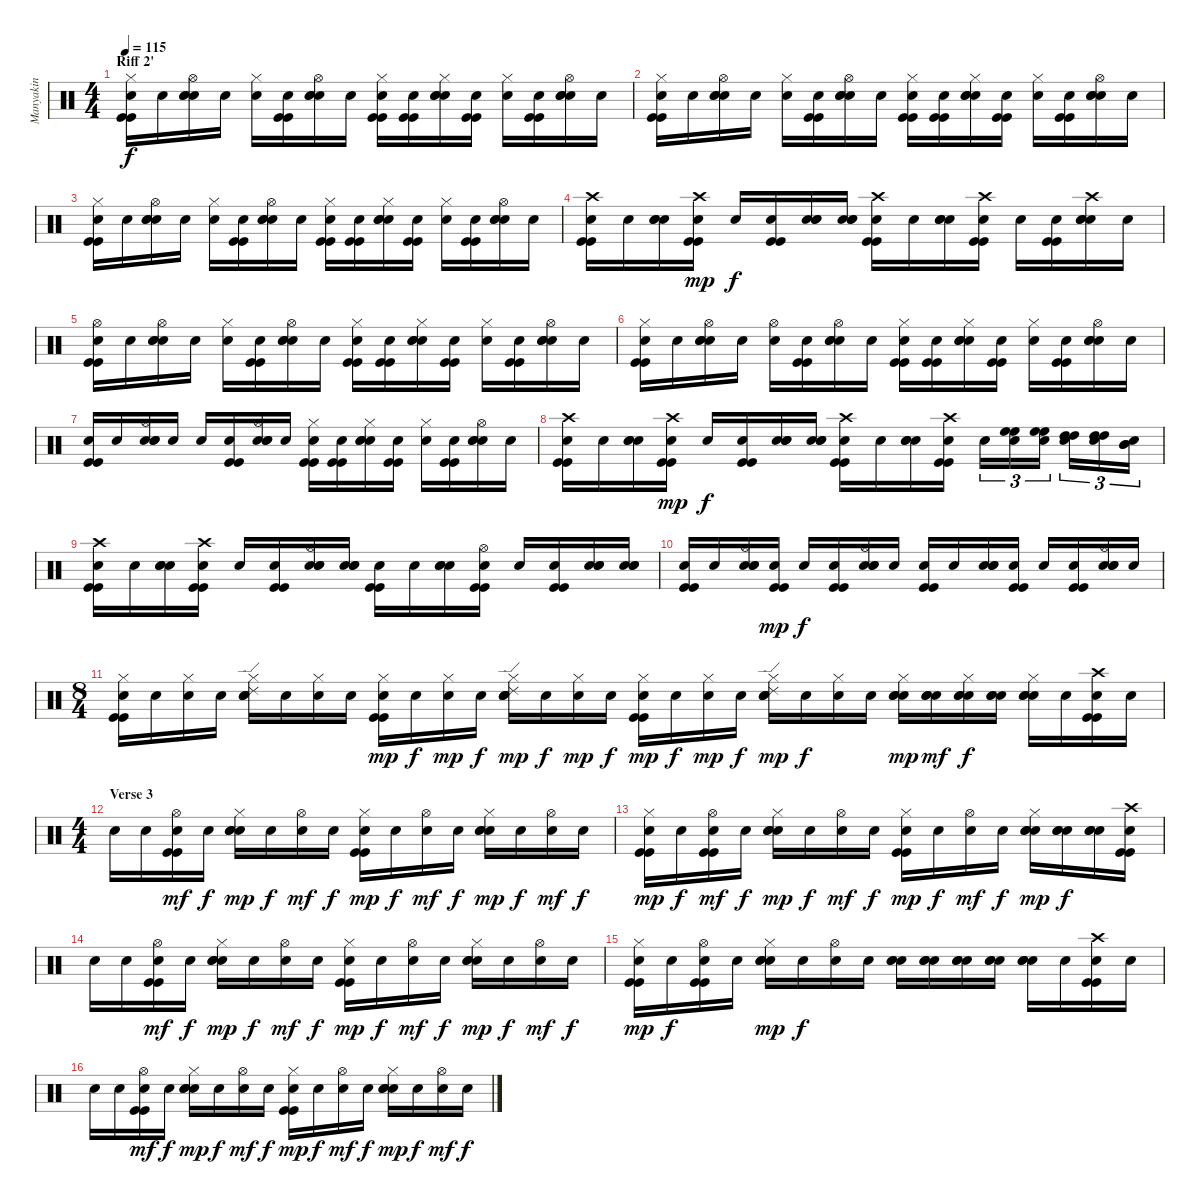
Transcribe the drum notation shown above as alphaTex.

\track ("Manyakin" "Manyakin") {instrument percussion}
\staff {score}
\articulation defaults
\ts (4 4)
\section ("" "Riff 2'")
\tempo 115
\clef neutral
\ks c
("Hi-Hat (closed)" "Kick (hit)" "Kick (hit)" "Snare (hit)"{x}).16{dy f} "Snare (hit)"{x}.16 ("Hi-Hat (open)" "Electric Snare (hit)" "Electric Snare (hit)" "Snare (hit)"{x}).16 "Snare (hit)"{x}.16 ("Hi-Hat (closed)" "Snare (hit)"{x}).16 ("Kick (hit)" "Kick (hit)" "Snare (hit)"{x}).16 ("Hi-Hat (open)" "Electric Snare (hit)" "Electric Snare (hit)" "Snare (hit)"{x}).16 "Snare (hit)"{x}.16 ("Hi-Hat (closed)" "Kick (hit)" "Kick (hit)" "Snare (hit)"{x}).16 ("Kick (hit)" "Kick (hit)" "Snare (hit)"{x}).16 ("Hi-Hat (closed)" "Electric Snare (hit)" "Electric Snare (hit)" "Snare (hit)"{x}).16 ("Kick (hit)" "Kick (hit)" "Snare (hit)"{x}).16 ("Hi-Hat (closed)" "Snare (hit)"{x}).16 ("Kick (hit)" "Kick (hit)" "Snare (hit)"{x}).16 ("Hi-Hat (open)" "Electric Snare (hit)" "Electric Snare (hit)" "Snare (hit)"{x}).16 "Snare (hit)"{x}.16 |
("Hi-Hat (closed)" "Kick (hit)" "Kick (hit)" "Snare (hit)"{x}).16 "Snare (hit)"{x}.16 ("Hi-Hat (open)" "Electric Snare (hit)" "Electric Snare (hit)" "Snare (hit)"{x}).16 "Snare (hit)"{x}.16 ("Hi-Hat (closed)" "Snare (hit)"{x}).16 ("Kick (hit)" "Kick (hit)" "Snare (hit)"{x}).16 ("Hi-Hat (open)" "Electric Snare (hit)" "Electric Snare (hit)" "Snare (hit)"{x}).16 "Snare (hit)"{x}.16 ("Hi-Hat (closed)" "Kick (hit)" "Kick (hit)" "Snare (hit)"{x}).16 ("Kick (hit)" "Kick (hit)" "Snare (hit)"{x}).16 ("Hi-Hat (closed)" "Electric Snare (hit)" "Electric Snare (hit)" "Snare (hit)"{x}).16 ("Kick (hit)" "Kick (hit)" "Snare (hit)"{x}).16 ("Hi-Hat (closed)" "Snare (hit)"{x}).16 ("Kick (hit)" "Kick (hit)" "Snare (hit)"{x}).16 ("Hi-Hat (open)" "Electric Snare (hit)" "Electric Snare (hit)" "Snare (hit)"{x}).16 "Snare (hit)"{x}.16 |
("Hi-Hat (closed)" "Kick (hit)" "Kick (hit)" "Snare (hit)"{x}).16 "Snare (hit)"{x}.16 ("Hi-Hat (open)" "Electric Snare (hit)" "Electric Snare (hit)" "Snare (hit)"{x}).16 "Snare (hit)"{x}.16 ("Hi-Hat (closed)" "Snare (hit)"{x}).16 ("Kick (hit)" "Kick (hit)" "Snare (hit)"{x}).16 ("Hi-Hat (open)" "Electric Snare (hit)" "Electric Snare (hit)" "Snare (hit)"{x}).16 "Snare (hit)"{x}.16 ("Hi-Hat (closed)" "Kick (hit)" "Kick (hit)" "Snare (hit)"{x}).16 ("Kick (hit)" "Kick (hit)" "Snare (hit)"{x}).16 ("Hi-Hat (closed)" "Electric Snare (hit)" "Electric Snare (hit)" "Snare (hit)"{x}).16 ("Kick (hit)" "Kick (hit)" "Snare (hit)"{x}).16 ("Hi-Hat (closed)" "Snare (hit)"{x}).16 ("Kick (hit)" "Kick (hit)" "Snare (hit)"{x}).16 ("Hi-Hat (open)" "Electric Snare (hit)" "Electric Snare (hit)" "Snare (hit)"{x}).16 "Snare (hit)"{x}.16 |
("Crash high (hit)" "Kick (hit)" "Kick (hit)" "Snare (hit)"{x}).16 "Snare (hit)"{x}.16 ("Electric Snare (hit)" "Electric Snare (hit)" "Snare (hit)"{x}).16 ("Crash high (hit)" "Kick (hit)" "Kick (hit)" "Snare (hit)"{x}).16{dy mp} "Snare (hit)"{x}.16{dy f} ("Kick (hit)" "Kick (hit)" "Snare (hit)"{x}).16 ("Electric Snare (hit)" "Electric Snare (hit)" "Snare (hit)"{x}).16 ("Electric Snare (hit)" "Electric Snare (hit)" "Snare (hit)"{x}).16 ("Crash high (hit)" "Kick (hit)" "Kick (hit)" "Snare (hit)"{x}).16 "Snare (hit)"{x}.16 ("Electric Snare (hit)" "Electric Snare (hit)" "Snare (hit)"{x}).16 ("Crash high (hit)" "Kick (hit)" "Kick (hit)" "Snare (hit)"{x}).16 "Snare (hit)"{x}.16 ("Kick (hit)" "Kick (hit)" "Snare (hit)"{x}).16 ("Crash high (hit)" "Electric Snare (hit)" "Electric Snare (hit)" "Snare (hit)"{x}).16 "Snare (hit)"{x}.16 |
("Hi-Hat (open)" "Kick (hit)" "Kick (hit)" "Snare (hit)"{x}).16 "Snare (hit)"{x}.16 ("Hi-Hat (open)" "Electric Snare (hit)" "Electric Snare (hit)" "Snare (hit)"{x}).16 "Snare (hit)"{x}.16 ("Hi-Hat (closed)" "Snare (hit)"{x}).16 ("Kick (hit)" "Kick (hit)" "Snare (hit)"{x}).16 ("Hi-Hat (open)" "Electric Snare (hit)" "Electric Snare (hit)" "Snare (hit)"{x}).16 "Snare (hit)"{x}.16 ("Hi-Hat (closed)" "Kick (hit)" "Kick (hit)" "Snare (hit)"{x}).16 ("Kick (hit)" "Kick (hit)" "Snare (hit)"{x}).16 ("Hi-Hat (closed)" "Electric Snare (hit)" "Electric Snare (hit)" "Snare (hit)"{x}).16 ("Kick (hit)" "Kick (hit)" "Snare (hit)"{x}).16 ("Hi-Hat (closed)" "Snare (hit)"{x}).16 ("Kick (hit)" "Kick (hit)" "Snare (hit)"{x}).16 ("Hi-Hat (open)" "Electric Snare (hit)" "Electric Snare (hit)" "Snare (hit)"{x}).16 "Snare (hit)"{x}.16 |
("Hi-Hat (closed)" "Kick (hit)" "Kick (hit)" "Snare (hit)"{x}).16 "Snare (hit)"{x}.16 ("Hi-Hat (open)" "Electric Snare (hit)" "Electric Snare (hit)" "Snare (hit)"{x}).16 "Snare (hit)"{x}.16 ("Hi-Hat (open)" "Snare (hit)"{x}).16 ("Kick (hit)" "Kick (hit)" "Snare (hit)"{x}).16 ("Hi-Hat (open)" "Electric Snare (hit)" "Electric Snare (hit)" "Snare (hit)"{x}).16 "Snare (hit)"{x}.16 ("Hi-Hat (closed)" "Kick (hit)" "Kick (hit)" "Snare (hit)"{x}).16 ("Kick (hit)" "Kick (hit)" "Snare (hit)"{x}).16 ("Hi-Hat (closed)" "Electric Snare (hit)" "Electric Snare (hit)" "Snare (hit)"{x}).16 ("Kick (hit)" "Kick (hit)" "Snare (hit)"{x}).16 ("Hi-Hat (closed)" "Snare (hit)"{x}).16 ("Kick (hit)" "Kick (hit)" "Snare (hit)"{x}).16 ("Hi-Hat (open)" "Electric Snare (hit)" "Electric Snare (hit)" "Snare (hit)"{x}).16 "Snare (hit)"{x}.16 |
("Kick (hit)" "Kick (hit)" "Snare (hit)"{x}).16 "Snare (hit)"{x}.16 ("Hi-Hat (open)" "Electric Snare (hit)" "Electric Snare (hit)" "Snare (hit)"{x}).16 "Snare (hit)"{x}.16 "Snare (hit)"{x}.16 ("Kick (hit)" "Kick (hit)" "Snare (hit)"{x}).16 ("Hi-Hat (open)" "Electric Snare (hit)" "Electric Snare (hit)" "Snare (hit)"{x}).16 "Snare (hit)"{x}.16 ("Hi-Hat (closed)" "Kick (hit)" "Kick (hit)" "Snare (hit)"{x}).16 ("Kick (hit)" "Kick (hit)" "Snare (hit)"{x}).16 ("Hi-Hat (closed)" "Electric Snare (hit)" "Electric Snare (hit)" "Snare (hit)"{x}).16 ("Kick (hit)" "Kick (hit)" "Snare (hit)"{x}).16 ("Hi-Hat (closed)" "Snare (hit)"{x}).16 ("Kick (hit)" "Kick (hit)" "Snare (hit)"{x}).16 ("Hi-Hat (open)" "Electric Snare (hit)" "Electric Snare (hit)" "Snare (hit)"{x}).16 "Snare (hit)"{x}.16 |
("Crash high (hit)" "Kick (hit)" "Kick (hit)" "Snare (hit)"{x}).16 "Snare (hit)"{x}.16 ("Electric Snare (hit)" "Electric Snare (hit)" "Snare (hit)"{x}).16 ("Crash high (hit)" "Kick (hit)" "Kick (hit)" "Snare (hit)"{x}).16{dy mp} "Snare (hit)"{x}.16{dy f} ("Kick (hit)" "Kick (hit)" "Snare (hit)"{x}).16 ("Electric Snare (hit)" "Electric Snare (hit)" "Snare (hit)"{x}).16 ("Electric Snare (hit)" "Electric Snare (hit)" "Snare (hit)"{x}).16 ("Crash high (hit)" "Kick (hit)" "Kick (hit)" "Snare (hit)"{x}).16 "Snare (hit)"{x}.16 ("Electric Snare (hit)" "Electric Snare (hit)" "Snare (hit)"{x}).16 ("Crash high (hit)" "Kick (hit)" "Kick (hit)" "Snare (hit)"{x}).16 "Snare (hit)"{x}.16{tu (3 2)} ("High Floor Tom (hit)" "High Floor Tom (hit)" "Snare (hit)"{x}).16{tu (3 2)} ("High Floor Tom (hit)" "High Floor Tom (hit)" "Snare (hit)"{x}).16{tu (3 2)} ("High Tom (hit)" "High Tom (hit)" "Snare (hit)"{x}).16{tu (3 2)} ("High Tom (hit)" "High Tom (hit)" "Snare (hit)"{x}).16{tu (3 2)} ("Mid Tom (hit)" "Mid Tom (hit)" "Snare (hit)"{x}).16{tu (3 2)} |
("Crash high (hit)" "Kick (hit)" "Kick (hit)" "Snare (hit)"{x}).16 "Snare (hit)"{x}.16 ("Electric Snare (hit)" "Electric Snare (hit)" "Snare (hit)"{x}).16 ("Crash high (hit)" "Kick (hit)" "Kick (hit)" "Snare (hit)"{x}).16 "Snare (hit)"{x}.16 ("Kick (hit)" "Kick (hit)" "Snare (hit)"{x}).16 ("Hi-Hat (open)" "Electric Snare (hit)" "Electric Snare (hit)" "Snare (hit)"{x}).16 ("Electric Snare (hit)" "Electric Snare (hit)" "Snare (hit)"{x}).16 ("Kick (hit)" "Kick (hit)" "Snare (hit)"{x}).16 "Snare (hit)"{x}.16 ("Electric Snare (hit)" "Electric Snare (hit)" "Snare (hit)"{x}).16 ("Hi-Hat (open)" "Kick (hit)" "Kick (hit)" "Snare (hit)"{x}).16 "Snare (hit)"{x}.16 ("Kick (hit)" "Kick (hit)" "Snare (hit)"{x}).16 ("Electric Snare (hit)" "Electric Snare (hit)" "Snare (hit)"{x}).16 ("Electric Snare (hit)" "Electric Snare (hit)" "Snare (hit)"{x}).16 |
("Kick (hit)" "Kick (hit)" "Snare (hit)"{x}).16 "Snare (hit)"{x}.16 ("Hi-Hat (open)" "Electric Snare (hit)" "Electric Snare (hit)" "Snare (hit)"{x}).16 ("Kick (hit)" "Kick (hit)" "Snare (hit)"{x}).16{dy mp} "Snare (hit)"{x}.16{dy f} ("Kick (hit)" "Kick (hit)" "Snare (hit)"{x}).16 ("Hi-Hat (open)" "Electric Snare (hit)" "Electric Snare (hit)" "Snare (hit)"{x}).16 "Snare (hit)"{x}.16 ("Kick (hit)" "Kick (hit)" "Snare (hit)"{x}).16 "Snare (hit)"{x}.16 ("Electric Snare (hit)" "Electric Snare (hit)" "Snare (hit)"{x}).16 ("Kick (hit)" "Kick (hit)" "Snare (hit)"{x}).16 "Snare (hit)"{x}.16 ("Kick (hit)" "Kick (hit)" "Snare (hit)"{x}).16 ("Hi-Hat (open)" "Electric Snare (hit)" "Electric Snare (hit)" "Snare (hit)"{x}).16 "Snare (hit)"{x}.16 |
\ts (8 4)
("Hi-Hat (closed)" "Kick (hit)" "Kick (hit)" "Snare (hit)"{x}).16 "Snare (hit)"{x}.16 ("Hi-Hat (closed)" "Snare (hit)"{x}).16 "Snare (hit)"{x}.16 ("Hi-Hat (closed)" "Ride (edge) 2" "Electric Snare (hit)" "Electric Snare (hit)" "Snare (hit)"{x}).16 "Snare (hit)"{x}.16 ("Hi-Hat (closed)" "Snare (hit)"{x}).16 "Snare (hit)"{x}.16 ("Hi-Hat (closed)" "Kick (hit)" "Kick (hit)" "Snare (hit)"{x}).16{dy mp} "Snare (hit)"{x}.16{dy f} ("Hi-Hat (closed)" "Snare (hit)"{x}).16{dy mp} "Snare (hit)"{x}.16{dy f} ("Hi-Hat (closed)" "Ride (edge) 2" "Electric Snare (hit)" "Electric Snare (hit)" "Snare (hit)"{x}).16{dy mp} "Snare (hit)"{x}.16{dy f} ("Hi-Hat (closed)" "Snare (hit)"{x}).16{dy mp} "Snare (hit)"{x}.16{dy f} ("Hi-Hat (closed)" "Kick (hit)" "Kick (hit)" "Snare (hit)"{x}).16{dy mp} "Snare (hit)"{x}.16{dy f} ("Hi-Hat (closed)" "Snare (hit)"{x}).16{dy mp} "Snare (hit)"{x}.16{dy f} ("Hi-Hat (closed)" "Ride (edge) 2" "Electric Snare (hit)" "Electric Snare (hit)" "Snare (hit)"{x}).16{dy mp} "Snare (hit)"{x}.16{dy f} ("Hi-Hat (closed)" "Snare (hit)"{x}).16 "Snare (hit)"{x}.16 ("Hi-Hat (closed)" "Electric Snare (hit)" "Electric Snare (hit)" "Snare (hit)"{x}).16{dy mp} ("Electric Snare (hit)" "Electric Snare (hit)" "Snare (hit)"{x}).16{dy mf} ("Hi-Hat (closed)" "Electric Snare (hit)" "Electric Snare (hit)" "Snare (hit)"{x}).16{dy f} ("Electric Snare (hit)" "Electric Snare (hit)" "Snare (hit)"{x}).16 ("Hi-Hat (closed)" "Electric Snare (hit)" "Electric Snare (hit)" "Snare (hit)"{x}).16 "Snare (hit)"{x}.16 ("Crash high (hit)" "Kick (hit)" "Kick (hit)" "Snare (hit)"{x}).16 "Snare (hit)"{x}.16 |
\ts (4 4)
\section ("" "Verse 3")
"Snare (hit)"{x}.16 "Snare (hit)"{x}.16 ("Hi-Hat (open)" "Kick (hit)" "Kick (hit)" "Snare (hit)"{x}).16{dy mf} "Snare (hit)"{x}.16{dy f} ("Hi-Hat (closed)" "Electric Snare (hit)" "Electric Snare (hit)" "Snare (hit)"{x}).16{dy mp} "Snare (hit)"{x}.16{dy f} ("Hi-Hat (open)" "Snare (hit)"{x}).16{dy mf} "Snare (hit)"{x}.16{dy f} ("Hi-Hat (closed)" "Kick (hit)" "Kick (hit)" "Snare (hit)"{x}).16{dy mp} "Snare (hit)"{x}.16{dy f} ("Hi-Hat (open)" "Snare (hit)"{x}).16{dy mf} "Snare (hit)"{x}.16{dy f} ("Hi-Hat (closed)" "Electric Snare (hit)" "Electric Snare (hit)" "Snare (hit)"{x}).16{dy mp} "Snare (hit)"{x}.16{dy f} ("Hi-Hat (open)" "Snare (hit)"{x}).16{dy mf} "Snare (hit)"{x}.16{dy f} |
("Hi-Hat (closed)" "Kick (hit)" "Kick (hit)" "Snare (hit)"{x}).16{dy mp} "Snare (hit)"{x}.16{dy f} ("Hi-Hat (open)" "Kick (hit)" "Kick (hit)" "Snare (hit)"{x}).16{dy mf} "Snare (hit)"{x}.16{dy f} ("Hi-Hat (closed)" "Electric Snare (hit)" "Electric Snare (hit)" "Snare (hit)"{x}).16{dy mp} "Snare (hit)"{x}.16{dy f} ("Hi-Hat (open)" "Snare (hit)"{x}).16{dy mf} "Snare (hit)"{x}.16{dy f} ("Hi-Hat (closed)" "Kick (hit)" "Kick (hit)" "Snare (hit)"{x}).16{dy mp} "Snare (hit)"{x}.16{dy f} ("Hi-Hat (open)" "Snare (hit)"{x}).16{dy mf} "Snare (hit)"{x}.16{dy f} ("Hi-Hat (closed)" "Electric Snare (hit)" "Electric Snare (hit)" "Snare (hit)"{x}).16{dy mp} ("Electric Snare (hit)" "Electric Snare (hit)" "Snare (hit)"{x}).16{dy f} ("Electric Snare (hit)" "Electric Snare (hit)" "Snare (hit)"{x}).16 ("Crash high (hit)" "Kick (hit)" "Kick (hit)" "Snare (hit)"{x}).16 |
"Snare (hit)"{x}.16 "Snare (hit)"{x}.16 ("Hi-Hat (open)" "Kick (hit)" "Kick (hit)" "Snare (hit)"{x}).16{dy mf} "Snare (hit)"{x}.16{dy f} ("Hi-Hat (closed)" "Electric Snare (hit)" "Electric Snare (hit)" "Snare (hit)"{x}).16{dy mp} "Snare (hit)"{x}.16{dy f} ("Hi-Hat (open)" "Snare (hit)"{x}).16{dy mf} "Snare (hit)"{x}.16{dy f} ("Hi-Hat (closed)" "Kick (hit)" "Kick (hit)" "Snare (hit)"{x}).16{dy mp} "Snare (hit)"{x}.16{dy f} ("Hi-Hat (open)" "Snare (hit)"{x}).16{dy mf} "Snare (hit)"{x}.16{dy f} ("Hi-Hat (closed)" "Electric Snare (hit)" "Electric Snare (hit)" "Snare (hit)"{x}).16{dy mp} "Snare (hit)"{x}.16{dy f} ("Hi-Hat (open)" "Snare (hit)"{x}).16{dy mf} "Snare (hit)"{x}.16{dy f} |
("Hi-Hat (closed)" "Kick (hit)" "Kick (hit)" "Snare (hit)"{x}).16{dy mp} "Snare (hit)"{x}.16{dy f} ("Hi-Hat (open)" "Kick (hit)" "Kick (hit)" "Snare (hit)"{x}).16 "Snare (hit)"{x}.16 ("Hi-Hat (closed)" "Electric Snare (hit)" "Electric Snare (hit)" "Snare (hit)"{x}).16{dy mp} "Snare (hit)"{x}.16{dy f} ("Hi-Hat (open)" "Snare (hit)"{x}).16 "Snare (hit)"{x}.16 ("Electric Snare (hit)" "Electric Snare (hit)" "Snare (hit)"{x}).16 ("Electric Snare (hit)" "Electric Snare (hit)" "Snare (hit)"{x}).16 ("Electric Snare (hit)" "Electric Snare (hit)" "Snare (hit)"{x}).16 ("Electric Snare (hit)" "Electric Snare (hit)" "Snare (hit)"{x}).16 ("Electric Snare (hit)" "Electric Snare (hit)" "Snare (hit)"{x}).16 "Snare (hit)"{x}.16 ("Crash high (hit)" "Kick (hit)" "Kick (hit)" "Snare (hit)"{x}).16 "Snare (hit)"{x}.16 |
"Snare (hit)"{x}.16 "Snare (hit)"{x}.16 ("Hi-Hat (open)" "Kick (hit)" "Kick (hit)" "Snare (hit)"{x}).16{dy mf} "Snare (hit)"{x}.16{dy f} ("Hi-Hat (closed)" "Electric Snare (hit)" "Electric Snare (hit)" "Snare (hit)"{x}).16{dy mp} "Snare (hit)"{x}.16{dy f} ("Hi-Hat (open)" "Snare (hit)"{x}).16{dy mf} "Snare (hit)"{x}.16{dy f} ("Hi-Hat (closed)" "Kick (hit)" "Kick (hit)" "Snare (hit)"{x}).16{dy mp} "Snare (hit)"{x}.16{dy f} ("Hi-Hat (open)" "Snare (hit)"{x}).16{dy mf} "Snare (hit)"{x}.16{dy f} ("Hi-Hat (closed)" "Electric Snare (hit)" "Electric Snare (hit)" "Snare (hit)"{x}).16{dy mp} "Snare (hit)"{x}.16{dy f} ("Hi-Hat (open)" "Snare (hit)"{x}).16{dy mf} "Snare (hit)"{x}.16{dy f}
